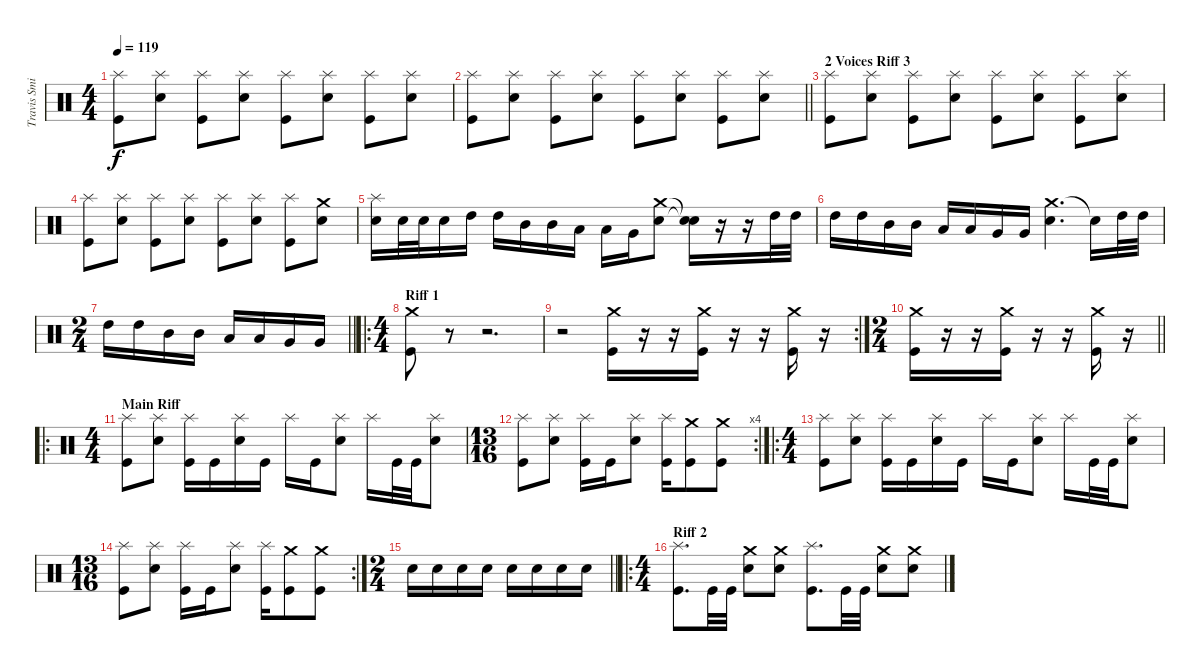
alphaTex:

\track ("Travis Smith (Drums)" "Travis Smi") {instrument percussion}
\staff {score}
\articulation defaults
\ts (4 4)
\tempo 119
\clef neutral
\ks c
("Splash (hit)" "Kick (hit)").8{dy f} ("Splash (hit)" "Electric Snare (hit)").8 ("Splash (hit)" "Kick (hit)").8 ("Splash (hit)" "Electric Snare (hit)").8 ("Splash (hit)" "Kick (hit)").8 ("Splash (hit)" "Electric Snare (hit)").8 ("Splash (hit)" "Kick (hit)").8 ("Splash (hit)" "Electric Snare (hit)").8 |
\barLineRight lightlight
("Splash (hit)" "Kick (hit)").8 ("Splash (hit)" "Electric Snare (hit)").8 ("Splash (hit)" "Kick (hit)").8 ("Splash (hit)" "Electric Snare (hit)").8 ("Splash (hit)" "Kick (hit)").8 ("Splash (hit)" "Electric Snare (hit)").8 ("Splash (hit)" "Kick (hit)").8 ("Splash (hit)" "Electric Snare (hit)").8 |
\section ("" "2 Voices Riff 3 ")
("Splash (hit)" "Kick (hit)").8 ("Splash (hit)" "Electric Snare (hit)").8 ("Splash (hit)" "Kick (hit)").8 ("Splash (hit)" "Electric Snare (hit)").8 ("Splash (hit)" "Kick (hit)").8 ("Splash (hit)" "Electric Snare (hit)").8 ("Splash (hit)" "Kick (hit)").8 ("Splash (hit)" "Electric Snare (hit)").8 |
("Splash (hit)" "Kick (hit)").8 ("Splash (hit)" "Electric Snare (hit)").8 ("Splash (hit)" "Kick (hit)").8 ("Splash (hit)" "Electric Snare (hit)").8 ("Splash (hit)" "Kick (hit)").8 ("Splash (hit)" "Electric Snare (hit)").8 ("Splash (hit)" "Kick (hit)").8 ("Crash medium (hit)" "Electric Snare (hit)").8 |
("Splash (hit)" "Electric Snare (hit)").16 "Electric Snare (hit)".32 "Electric Snare (hit)".32 "Electric Snare (hit)".16 "High Tom (hit)".16 "High Tom (hit)".16 "Mid Tom (hit)".16 "Mid Tom (hit)".16 "Low Tom (hit)".16 "Low Tom (hit)".16 "Very Low Tom (hit)".16 ("Crash medium (hit)" "Electric Snare (hit)").8 ("Snare (hit)"{t} "Snare (hit)"{t}).16 r.16 r.16 "High Tom (hit)".32 "High Tom (hit)".32 |
"High Tom (hit)".16 "High Tom (hit)".16 "Mid Tom (hit)".16 "Mid Tom (hit)".16 "Low Tom (hit)".16 "Low Tom (hit)".16 "Very Low Tom (hit)".16 "Very Low Tom (hit)".16 ("Crash medium (hit)" "Electric Snare (hit)").4{d} "Snare (hit)"{t}.16 "High Tom (hit)".32 "High Tom (hit)".32 |
\ts (2 4)
\barLineRight lightlight "High Tom (hit)".16 "High Tom (hit)".16 "Mid Tom (hit)".16 "Mid Tom (hit)".16 "Low Tom (hit)".16 "Low Tom (hit)".16 "Very Low Tom (hit)".16 "Very Low Tom (hit)".16
|
\ro
\ts (4 4)
\section ("" "Riff 1")
("Crash medium (hit)" "Kick (hit)").8 r.8 r.2{d} |
\rc 2
r.2 ("Crash medium (hit)" "Kick (hit)").16 r.16 r.16 ("Crash medium (hit)" "Kick (hit)").16 r.16 r.16 ("Crash medium (hit)" "Kick (hit)").16 r.16 |
\ts (2 4)
\barLineRight lightlight
("Crash medium (hit)" "Kick (hit)").16 r.16 r.16 ("Crash medium (hit)" "Kick (hit)").16 r.16 r.16 ("Crash medium (hit)" "Kick (hit)").16 r.16 |
\ro
\ts (4 4)
\section ("" "Main Riff")
("Splash (hit)" "Kick (hit)").8 ("Splash (hit)" "Electric Snare (hit)").8 ("Splash (hit)" "Kick (hit)").16 "Kick (hit)".16 ("Splash (hit)" "Electric Snare (hit)").16 "Kick (hit)".16 "Splash (hit)".16 "Kick (hit)".16 ("Splash (hit)" "Electric Snare (hit)").8 "Splash (hit)".16 "Kick (hit)".32 "Kick (hit)".32 ("Splash (hit)" "Electric Snare (hit)").8 |
\rc 4
\ts (13 16)
("Splash (hit)" "Kick (hit)").8 ("Splash (hit)" "Electric Snare (hit)").8 ("Splash (hit)" "Kick (hit)").16 "Kick (hit)".16 ("Splash (hit)" "Electric Snare (hit)").8 ("Splash (hit)" "Kick (hit)").16 ("Crash medium (hit)" "Kick (hit)").8 ("Crash medium (hit)" "Kick (hit)").8 |
\ro
\ts (4 4)
("Splash (hit)" "Kick (hit)").8 ("Splash (hit)" "Electric Snare (hit)").8 ("Splash (hit)" "Kick (hit)").16 "Kick (hit)".16 ("Splash (hit)" "Electric Snare (hit)").16 "Kick (hit)".16 "Splash (hit)".16 "Kick (hit)".16 ("Splash (hit)" "Electric Snare (hit)").8 "Splash (hit)".16 "Kick (hit)".32 "Kick (hit)".32 ("Splash (hit)" "Electric Snare (hit)").8 |
\rc 2
\ts (13 16)
("Splash (hit)" "Kick (hit)").8 ("Splash (hit)" "Electric Snare (hit)").8 ("Splash (hit)" "Kick (hit)").16 "Kick (hit)".16 ("Splash (hit)" "Electric Snare (hit)").8 ("Splash (hit)" "Kick (hit)").16 ("Crash medium (hit)" "Kick (hit)").8 ("Crash medium (hit)" "Kick (hit)").8 |
\ts (2 4)
\barLineRight lightlight "Electric Snare (hit)".16 "Electric Snare (hit)".16 "Electric Snare (hit)".16 "Electric Snare (hit)".16 "Electric Snare (hit)".16 "Electric Snare (hit)".16 "Electric Snare (hit)".16 "Electric Snare (hit)".16
|
\ro
\ts (4 4)
\section ("" "Riff 2")
("Splash (hit)" "Kick (hit)").8{d} "Kick (hit)".32 "Kick (hit)".32 ("Crash medium (hit)" "Electric Snare (hit)").8 ("Crash medium (hit)" "Electric Snare (hit)").8 ("Splash (hit)" "Kick (hit)").8{d} "Kick (hit)".32 "Kick (hit)".32 ("Crash medium (hit)" "Electric Snare (hit)").8 ("Crash medium (hit)" "Electric Snare (hit)").8
